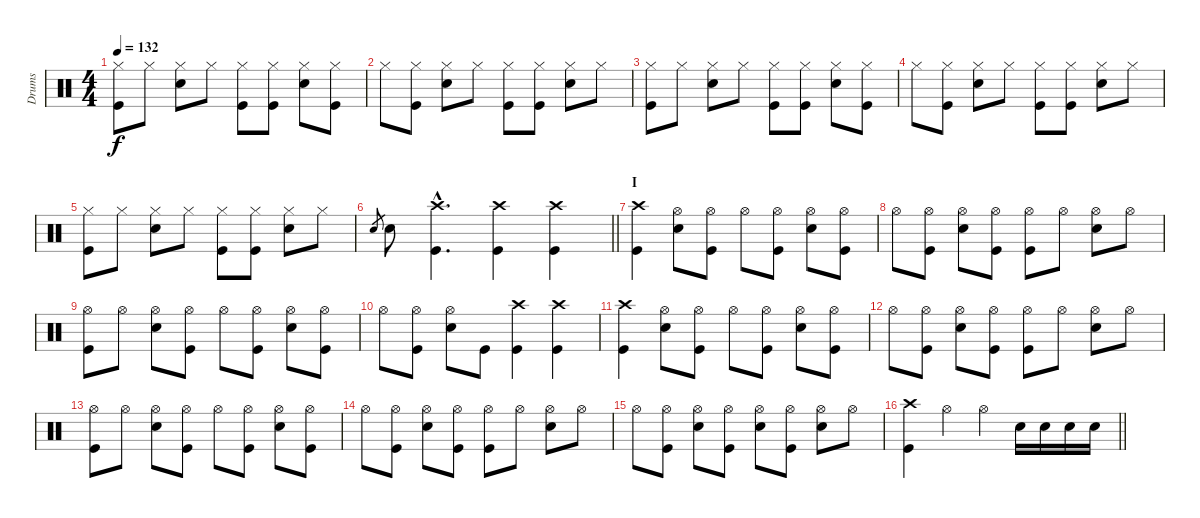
\track ("Drums" "Drums") {instrument percussion}
\staff {score}
\articulation defaults
\ts (4 4)
\tempo 132
\clef neutral
\ks c
("Hi-Hat (closed)" "Kick (hit)").8{dy f} "Hi-Hat (closed)".8 ("Hi-Hat (closed)" "Electric Snare (hit)").8 "Hi-Hat (closed)".8 ("Hi-Hat (closed)" "Kick (hit)").8 ("Hi-Hat (closed)" "Kick (hit)").8 ("Hi-Hat (closed)" "Electric Snare (hit)").8 ("Hi-Hat (closed)" "Kick (hit)").8 |
"Hi-Hat (closed)".8 ("Hi-Hat (closed)" "Kick (hit)").8 ("Hi-Hat (closed)" "Electric Snare (hit)").8 "Hi-Hat (closed)".8 ("Hi-Hat (closed)" "Kick (hit)").8 ("Hi-Hat (closed)" "Kick (hit)").8 ("Hi-Hat (closed)" "Electric Snare (hit)").8 "Hi-Hat (closed)".8 |
("Hi-Hat (closed)" "Kick (hit)").8 "Hi-Hat (closed)".8 ("Hi-Hat (closed)" "Electric Snare (hit)").8 "Hi-Hat (closed)".8 ("Hi-Hat (closed)" "Kick (hit)").8 ("Hi-Hat (closed)" "Kick (hit)").8 ("Hi-Hat (closed)" "Electric Snare (hit)").8 ("Hi-Hat (closed)" "Kick (hit)").8 |
"Hi-Hat (closed)".8 ("Hi-Hat (closed)" "Kick (hit)").8 ("Hi-Hat (closed)" "Electric Snare (hit)").8 "Hi-Hat (closed)".8 ("Hi-Hat (closed)" "Kick (hit)").8 ("Hi-Hat (closed)" "Kick (hit)").8 ("Hi-Hat (closed)" "Electric Snare (hit)").8 "Hi-Hat (closed)".8 |
("Hi-Hat (closed)" "Kick (hit)").8 "Hi-Hat (closed)".8 ("Hi-Hat (closed)" "Electric Snare (hit)").8 "Hi-Hat (closed)".8 ("Hi-Hat (closed)" "Kick (hit)").8 ("Hi-Hat (closed)" "Kick (hit)").8 ("Hi-Hat (closed)" "Electric Snare (hit)").8 "Hi-Hat (closed)".8 |
\barLineRight lightlight "Electric Snare (hit)".8{gr} "Electric Snare (hit)".8
("Crash high (hit)"{hac} "Kick (hit)"{hac}).4{d} ("Crash high (hit)" "Kick (hit)").4 ("Crash high (hit)" "Kick (hit)").4 |
\section ("" "I")
("Crash high (hit)" "Kick (hit)").4 ("Hi-Hat (open)" "Electric Snare (hit)").8 ("Hi-Hat (open)" "Kick (hit)").8 "Hi-Hat (open)".8 ("Hi-Hat (open)" "Kick (hit)").8 ("Hi-Hat (open)" "Electric Snare (hit)").8 ("Hi-Hat (open)" "Kick (hit)").8 |
"Hi-Hat (open)".8 ("Hi-Hat (open)" "Kick (hit)").8 ("Hi-Hat (open)" "Electric Snare (hit)").8 ("Hi-Hat (open)" "Kick (hit)").8 ("Hi-Hat (open)" "Kick (hit)").8 "Hi-Hat (open)".8 ("Hi-Hat (open)" "Electric Snare (hit)").8 "Hi-Hat (open)".8 |
("Hi-Hat (open)" "Kick (hit)").8 "Hi-Hat (open)".8 ("Hi-Hat (open)" "Electric Snare (hit)").8 ("Hi-Hat (open)" "Kick (hit)").8 "Hi-Hat (open)".8 ("Hi-Hat (open)" "Kick (hit)").8 ("Hi-Hat (open)" "Electric Snare (hit)").8 ("Hi-Hat (open)" "Kick (hit)").8 |
"Hi-Hat (open)".8 ("Hi-Hat (open)" "Kick (hit)").8 ("Hi-Hat (open)" "Electric Snare (hit)").8 "Kick (hit)".8 ("Crash high (hit)" "Kick (hit)").4 ("Crash high (hit)" "Kick (hit)").4 |
("Crash high (hit)" "Kick (hit)").4 ("Hi-Hat (open)" "Electric Snare (hit)").8 ("Hi-Hat (open)" "Kick (hit)").8 "Hi-Hat (open)".8 ("Hi-Hat (open)" "Kick (hit)").8 ("Hi-Hat (open)" "Electric Snare (hit)").8 ("Hi-Hat (open)" "Kick (hit)").8 |
"Hi-Hat (open)".8 ("Hi-Hat (open)" "Kick (hit)").8 ("Hi-Hat (open)" "Electric Snare (hit)").8 ("Hi-Hat (open)" "Kick (hit)").8 ("Hi-Hat (open)" "Kick (hit)").8 "Hi-Hat (open)".8 ("Hi-Hat (open)" "Electric Snare (hit)").8 "Hi-Hat (open)".8 |
("Hi-Hat (open)" "Kick (hit)").8 "Hi-Hat (open)".8 ("Hi-Hat (open)" "Electric Snare (hit)").8 ("Hi-Hat (open)" "Kick (hit)").8 "Hi-Hat (open)".8 ("Hi-Hat (open)" "Kick (hit)").8 ("Hi-Hat (open)" "Electric Snare (hit)").8 ("Hi-Hat (open)" "Kick (hit)").8 |
"Hi-Hat (open)".8 ("Hi-Hat (open)" "Kick (hit)").8 ("Hi-Hat (open)" "Electric Snare (hit)").8 ("Hi-Hat (open)" "Kick (hit)").8 ("Hi-Hat (open)" "Kick (hit)").8 "Hi-Hat (open)".8 ("Hi-Hat (open)" "Electric Snare (hit)").8 "Hi-Hat (open)".8 |
"Hi-Hat (open)".8 ("Hi-Hat (open)" "Kick (hit)").8 ("Hi-Hat (open)" "Electric Snare (hit)").8 ("Hi-Hat (open)" "Kick (hit)").8 ("Hi-Hat (open)" "Electric Snare (hit)").8 ("Hi-Hat (open)" "Kick (hit)").8 ("Hi-Hat (open)" "Electric Snare (hit)").8 "Hi-Hat (open)".8 |
\barLineRight lightlight
("Crash high (hit)" "Kick (hit)").4 "Hi-Hat (open)".4 "Hi-Hat (open)".4 "Electric Snare (hit)".16 "Electric Snare (hit)".16 "Electric Snare (hit)".16 "Electric Snare (hit)".16
